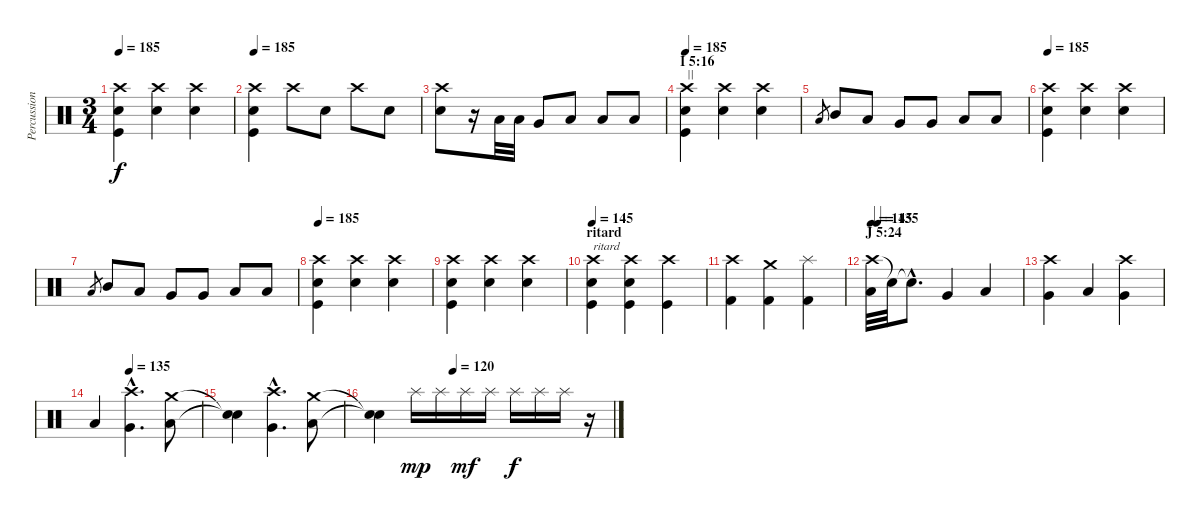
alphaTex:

\track ("Percussion" "Percussion") {instrument percussion}
\staff {score}
\articulation defaults
\ts (3 4)
\tempo 185
\clef neutral
\ks c
("Crash high (hit)" "Electric Snare (hit)" "Kick (hit)").4{dy f} ("Crash high (hit)" "Electric Snare (hit)").4 ("Crash high (hit)" "Electric Snare (hit)").4 |
\tempo 185
("Crash high (hit)" "Electric Snare (hit)" "Kick (hit)").4 "Crash high (hit)".8 "Electric Snare (hit)".8 "Crash high (hit)".8 "Electric Snare (hit)".8 |
("Crash high (hit)" "Electric Snare (hit)").8 r.16 "Low Tom (hit)".32 "Low Tom (hit)".32 "Very Low Tom (hit)".8 "Low Tom (hit)".8 "Low Floor Tom (hit)".8 "Low Floor Tom (hit)".8 |
\section ("" "I 5:16")
\tempo 185
("Crash high (hit)" "Electric Snare (hit)" "Kick (hit)").4{txt "||"} ("Crash high (hit)" "Electric Snare (hit)").4 ("Crash high (hit)" "Electric Snare (hit)").4 |
"Low Tom (hit)".8{gr} "Mid Tom (hit)".8 "Low Tom (hit)".8 "Very Low Tom (hit)".8 "Very Low Tom (hit)".8 "Low Floor Tom (hit)".8 "Low Floor Tom (hit)".8 |
\tempo 185
("Crash high (hit)" "Electric Snare (hit)" "Kick (hit)").4 ("Crash high (hit)" "Electric Snare (hit)").4 ("Crash high (hit)" "Electric Snare (hit)").4 |
"Low Tom (hit)".8{gr} "Mid Tom (hit)".8 "Low Tom (hit)".8 "Very Low Tom (hit)".8 "Very Low Tom (hit)".8 "Low Floor Tom (hit)".8 "Low Floor Tom (hit)".8 |
\tempo 185
("Crash high (hit)" "Electric Snare (hit)" "Kick (hit)").4 ("Crash high (hit)" "Electric Snare (hit)").4 ("Crash high (hit)" "Electric Snare (hit)").4 |
("Crash high (hit)" "Electric Snare (hit)" "Kick (hit)").4 ("Crash high (hit)" "Electric Snare (hit)").4 ("Crash high (hit)" "Electric Snare (hit)").4 |
\section ("" "ritard")
\tempo 145
("Crash high (hit)" "Electric Snare (hit)" "Kick (hit)").4{txt "ritard"} ("Crash high (hit)" "Electric Snare (hit)" "Kick (hit)").4 ("Crash high (hit)" "Kick (hit)").4 |
("Crash high (hit)" "Kick (hit) 2").4 ("Crash medium (hit)" "Kick (hit) 2").4 ("Splash (hit)" "Kick (hit) 2").4 |
\section ("" "J 5:24")
\tempo 145
\tempo (135 0.041666666666666664)
("Crash high (hit)" "Low Floor Tom (hit)").32 "Snare (hit)"{t}.32 "Snare (hit)"{hac t}.8{d} "Very Low Tom (hit)".4 "Low Floor Tom (hit)".4 |
("Crash high (hit)" "Very Low Tom (hit)").4 "Low Floor Tom (hit)".4 ("Crash high (hit)" "Very Low Tom (hit)").4 |
\tempo (135 0.3333333333333333)
"Low Floor Tom (hit)".4 ("Crash high (hit)"{hac} "Very Low Tom (hit)"{hac}).4{d} ("Crash medium (hit)" "Low Floor Tom (hit)").8 |
("Snare (hit)"{t} "Snare (hit)"{t}).4 ("Crash high (hit)"{hac} "Very Low Tom (hit)"{hac}).4{d} ("Crash medium (hit)" "Low Floor Tom (hit)").8 |
\tempo (120 0.3333333333333333)
("Snare (hit)"{t} "Snare (hit)"{t}).4 "Splash (hit)".16{dy mp} "Splash (hit)".16 "Splash (hit)".16{dy mf} "Splash (hit)".16 "Splash (hit)".16{dy f} "Splash (hit)".16 "Splash (hit)".16 r.16
